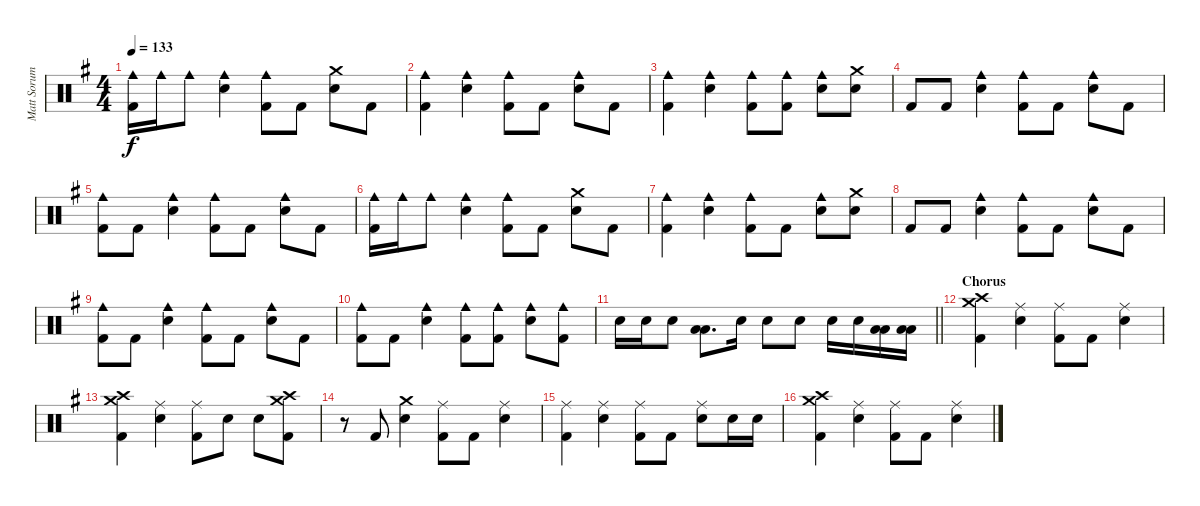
\track ("Matt Sorum - Drums" "Matt Sorum") {instrument percussion}
\staff {score}
\articulation defaults
\ts (4 4)
\tempo 133
\clef neutral
\ks g
("Cowbell medium (hit)" "Kick (hit) 2").16{dy f} "Cowbell medium (hit)".16 "Cowbell medium (hit)".8 ("Cowbell medium (hit)" "Snare (hit) 2").4 ("Cowbell medium (hit)" "Kick (hit) 2").8 "Kick (hit) 2".8 ("Crash medium (hit)" "Snare (hit) 2").8 "Kick (hit) 2".8 |
("Cowbell medium (hit)" "Kick (hit) 2").4 ("Cowbell medium (hit)" "Snare (hit) 2").4 ("Cowbell medium (hit)" "Kick (hit) 2").8 "Kick (hit) 2".8 ("Cowbell medium (hit)" "Snare (hit) 2").8 "Kick (hit) 2".8 |
("Cowbell medium (hit)" "Kick (hit) 2").4 ("Cowbell medium (hit)" "Snare (hit) 2").4 ("Cowbell medium (hit)" "Kick (hit) 2").8 ("Cowbell medium (hit)" "Kick (hit) 2").8 ("Cowbell medium (hit)" "Snare (hit) 2").8 ("Crash medium (hit)" "Snare (hit) 2").8 |
"Kick (hit) 2".8 "Kick (hit) 2".8 ("Cowbell medium (hit)" "Snare (hit) 2").4 ("Cowbell medium (hit)" "Kick (hit) 2").8 "Kick (hit) 2".8 ("Cowbell medium (hit)" "Snare (hit) 2").8 "Kick (hit) 2".8 |
("Cowbell medium (hit)" "Kick (hit) 2").8 "Kick (hit) 2".8 ("Cowbell medium (hit)" "Snare (hit) 2").4 ("Cowbell medium (hit)" "Kick (hit) 2").8 "Kick (hit) 2".8 ("Cowbell medium (hit)" "Snare (hit) 2").8 "Kick (hit) 2".8 |
("Cowbell medium (hit)" "Kick (hit) 2").16 "Cowbell medium (hit)".16 "Cowbell medium (hit)".8 ("Cowbell medium (hit)" "Snare (hit) 2").4 ("Cowbell medium (hit)" "Kick (hit) 2").8 "Kick (hit) 2".8 ("Crash medium (hit)" "Snare (hit) 2").8 "Kick (hit) 2".8 |
("Cowbell medium (hit)" "Kick (hit) 2").4 ("Cowbell medium (hit)" "Snare (hit) 2").4 ("Cowbell medium (hit)" "Kick (hit) 2").8 "Kick (hit) 2".8 ("Cowbell medium (hit)" "Snare (hit) 2").8 ("Crash medium (hit)" "Snare (hit) 2").8 |
"Kick (hit) 2".8 "Kick (hit) 2".8 ("Cowbell medium (hit)" "Snare (hit) 2").4 ("Cowbell medium (hit)" "Kick (hit) 2").8 "Kick (hit) 2".8 ("Cowbell medium (hit)" "Snare (hit) 2").8 "Kick (hit) 2".8 |
("Cowbell medium (hit)" "Kick (hit) 2").8 "Kick (hit) 2".8 ("Cowbell medium (hit)" "Snare (hit) 2").4 ("Cowbell medium (hit)" "Kick (hit) 2").8 "Kick (hit) 2".8 ("Cowbell medium (hit)" "Snare (hit) 2").8 "Kick (hit) 2".8 |
("Cowbell medium (hit)" "Kick (hit) 2").8 "Kick (hit) 2".8 ("Cowbell medium (hit)" "Snare (hit) 2").4 ("Cowbell medium (hit)" "Kick (hit) 2").8 ("Cowbell medium (hit)" "Kick (hit) 2").8 ("Cowbell medium (hit)" "Snare (hit) 2").8 ("Cowbell medium (hit)" "Kick (hit) 2").8 |
\barLineRight lightlight "Snare (hit) 2".16 "Snare (hit) 2".16 "Snare (hit) 2".8
("Low Tom (hit)" "Low Tom (hit)").8{d} "Snare (hit) 2".16 "Snare (hit) 2".8 "Snare (hit) 2".8 "Snare (hit) 2".16 "Snare (hit) 2".16 ("Low Tom (hit)" "Low Tom (hit)").16 ("Low Tom (hit)" "Low Tom (hit)").16 |
\section ("" "Chorus")
("Crash medium (hit)" "Crash high (hit)" "Kick (hit) 2").4 ("Ride (middle)" "Snare (hit) 2").4 ("Ride (middle)" "Kick (hit) 2").8 "Kick (hit) 2".8 ("Ride (middle)" "Snare (hit) 2").4 |
("Crash medium (hit)" "Crash high (hit)" "Kick (hit) 2").4 ("Ride (middle)" "Snare (hit) 2").4 ("Ride (middle)" "Kick (hit) 2").8 "Snare (hit) 2".8 "Snare (hit) 2".8 ("Crash medium (hit)" "Crash high (hit)" "Kick (hit) 2").8 |
r.8 "Kick (hit) 2".8 ("Crash medium (hit)" "Snare (hit) 2").4 ("Ride (middle)" "Kick (hit) 2").8 "Kick (hit) 2".8 ("Ride (middle)" "Snare (hit) 2").4 |
("Ride (middle)" "Kick (hit) 2").4 ("Ride (middle)" "Snare (hit) 2").4 ("Ride (middle)" "Kick (hit) 2").8 "Kick (hit) 2".8 ("Ride (middle)" "Snare (hit) 2").8 "Snare (hit) 2".16 "Snare (hit) 2".16 |
("Crash medium (hit)" "Crash high (hit)" "Kick (hit) 2").4 ("Ride (middle)" "Snare (hit) 2").4 ("Ride (middle)" "Kick (hit) 2").8 "Kick (hit) 2".8 ("Ride (middle)" "Snare (hit) 2").4
